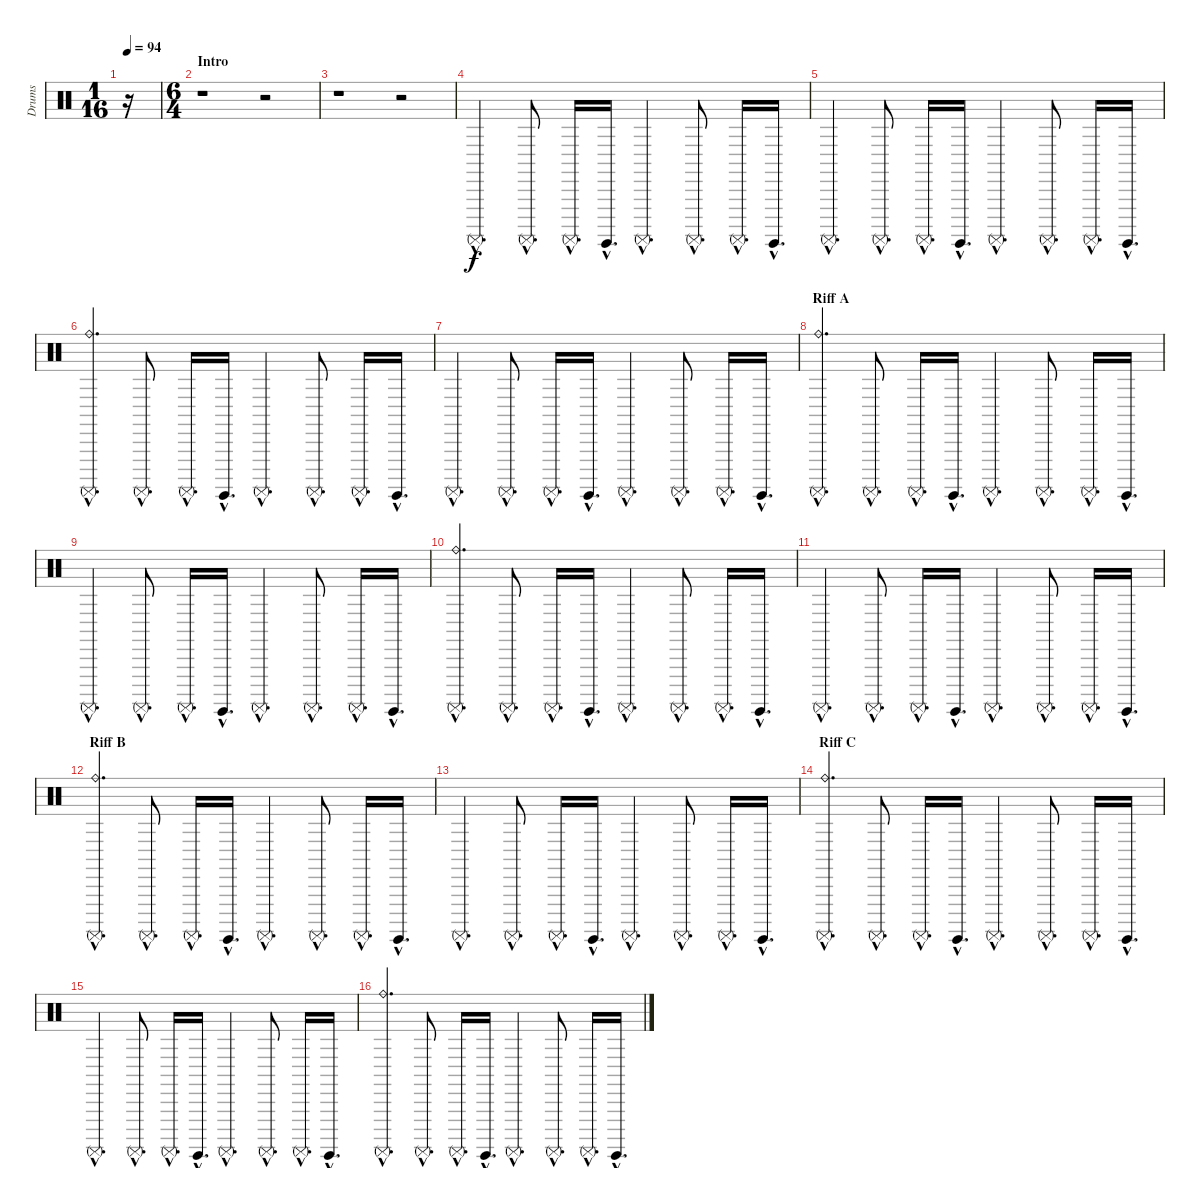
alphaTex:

\track ("Drums" "Drums") {instrument percussion}
\staff {score}
\articulation defaults
\ts (1 16)
\tempo 94
\clef neutral
\ks c
r.16{dy f} |
\ts (6 4)
\section ("" "Intro")
r.1 r.2 |
r.1 r.2 |
"Surdo (mute)"{hac}.4{d} "Surdo (mute)"{hac}.8{d} "Surdo (mute)"{hac}.16{d} "Surdo (hit)"{hac}.16{d} "Surdo (mute)"{hac}.4{d} "Surdo (mute)"{hac}.8{d} "Surdo (mute)"{hac}.16{d} "Surdo (hit)"{hac}.16{d} |
"Surdo (mute)"{hac}.4{d} "Surdo (mute)"{hac}.8{d} "Surdo (mute)"{hac}.16{d} "Surdo (hit)"{hac}.16{d} "Surdo (mute)"{hac}.4{d} "Surdo (mute)"{hac}.8{d} "Surdo (mute)"{hac}.16{d} "Surdo (hit)"{hac}.16{d} |
("Surdo (mute)"{hac} "Ride (bell)"{hac}).4{d} "Surdo (mute)"{hac}.8{d} "Surdo (mute)"{hac}.16{d} "Surdo (hit)"{hac}.16{d} "Surdo (mute)"{hac}.4{d} "Surdo (mute)"{hac}.8{d} "Surdo (mute)"{hac}.16{d} "Surdo (hit)"{hac}.16{d} |
"Surdo (mute)"{hac}.4{d} "Surdo (mute)"{hac}.8{d} "Surdo (mute)"{hac}.16{d} "Surdo (hit)"{hac}.16{d} "Surdo (mute)"{hac}.4{d} "Surdo (mute)"{hac}.8{d} "Surdo (mute)"{hac}.16{d} "Surdo (hit)"{hac}.16{d} |
\section ("" "Riff A")
("Surdo (mute)"{hac} "Ride (bell)"{hac}).4{d} "Surdo (mute)"{hac}.8{d} "Surdo (mute)"{hac}.16{d} "Surdo (hit)"{hac}.16{d} "Surdo (mute)"{hac}.4{d} "Surdo (mute)"{hac}.8{d} "Surdo (mute)"{hac}.16{d} "Surdo (hit)"{hac}.16{d} |
"Surdo (mute)"{hac}.4{d} "Surdo (mute)"{hac}.8{d} "Surdo (mute)"{hac}.16{d} "Surdo (hit)"{hac}.16{d} "Surdo (mute)"{hac}.4{d} "Surdo (mute)"{hac}.8{d} "Surdo (mute)"{hac}.16{d} "Surdo (hit)"{hac}.16{d} |
("Surdo (mute)"{hac} "Ride (bell)"{hac}).4{d} "Surdo (mute)"{hac}.8{d} "Surdo (mute)"{hac}.16{d} "Surdo (hit)"{hac}.16{d} "Surdo (mute)"{hac}.4{d} "Surdo (mute)"{hac}.8{d} "Surdo (mute)"{hac}.16{d} "Surdo (hit)"{hac}.16{d} |
"Surdo (mute)"{hac}.4{d} "Surdo (mute)"{hac}.8{d} "Surdo (mute)"{hac}.16{d} "Surdo (hit)"{hac}.16{d} "Surdo (mute)"{hac}.4{d} "Surdo (mute)"{hac}.8{d} "Surdo (mute)"{hac}.16{d} "Surdo (hit)"{hac}.16{d} |
\section ("" "Riff B")
("Surdo (mute)"{hac} "Ride (bell)"{hac}).4{d} "Surdo (mute)"{hac}.8{d} "Surdo (mute)"{hac}.16{d} "Surdo (hit)"{hac}.16{d} "Surdo (mute)"{hac}.4{d} "Surdo (mute)"{hac}.8{d} "Surdo (mute)"{hac}.16{d} "Surdo (hit)"{hac}.16{d} |
"Surdo (mute)"{hac}.4{d} "Surdo (mute)"{hac}.8{d} "Surdo (mute)"{hac}.16{d} "Surdo (hit)"{hac}.16{d} "Surdo (mute)"{hac}.4{d} "Surdo (mute)"{hac}.8{d} "Surdo (mute)"{hac}.16{d} "Surdo (hit)"{hac}.16{d} |
\section ("" "Riff C")
("Surdo (mute)"{hac} "Ride (bell)"{hac}).4{d} "Surdo (mute)"{hac}.8{d} "Surdo (mute)"{hac}.16{d} "Surdo (hit)"{hac}.16{d} "Surdo (mute)"{hac}.4{d} "Surdo (mute)"{hac}.8{d} "Surdo (mute)"{hac}.16{d} "Surdo (hit)"{hac}.16{d} |
"Surdo (mute)"{hac}.4{d} "Surdo (mute)"{hac}.8{d} "Surdo (mute)"{hac}.16{d} "Surdo (hit)"{hac}.16{d} "Surdo (mute)"{hac}.4{d} "Surdo (mute)"{hac}.8{d} "Surdo (mute)"{hac}.16{d} "Surdo (hit)"{hac}.16{d} |
("Surdo (mute)"{hac} "Ride (bell)"{hac}).4{d} "Surdo (mute)"{hac}.8{d} "Surdo (mute)"{hac}.16{d} "Surdo (hit)"{hac}.16{d} "Surdo (mute)"{hac}.4{d} "Surdo (mute)"{hac}.8{d} "Surdo (mute)"{hac}.16{d} "Surdo (hit)"{hac}.16{d}
